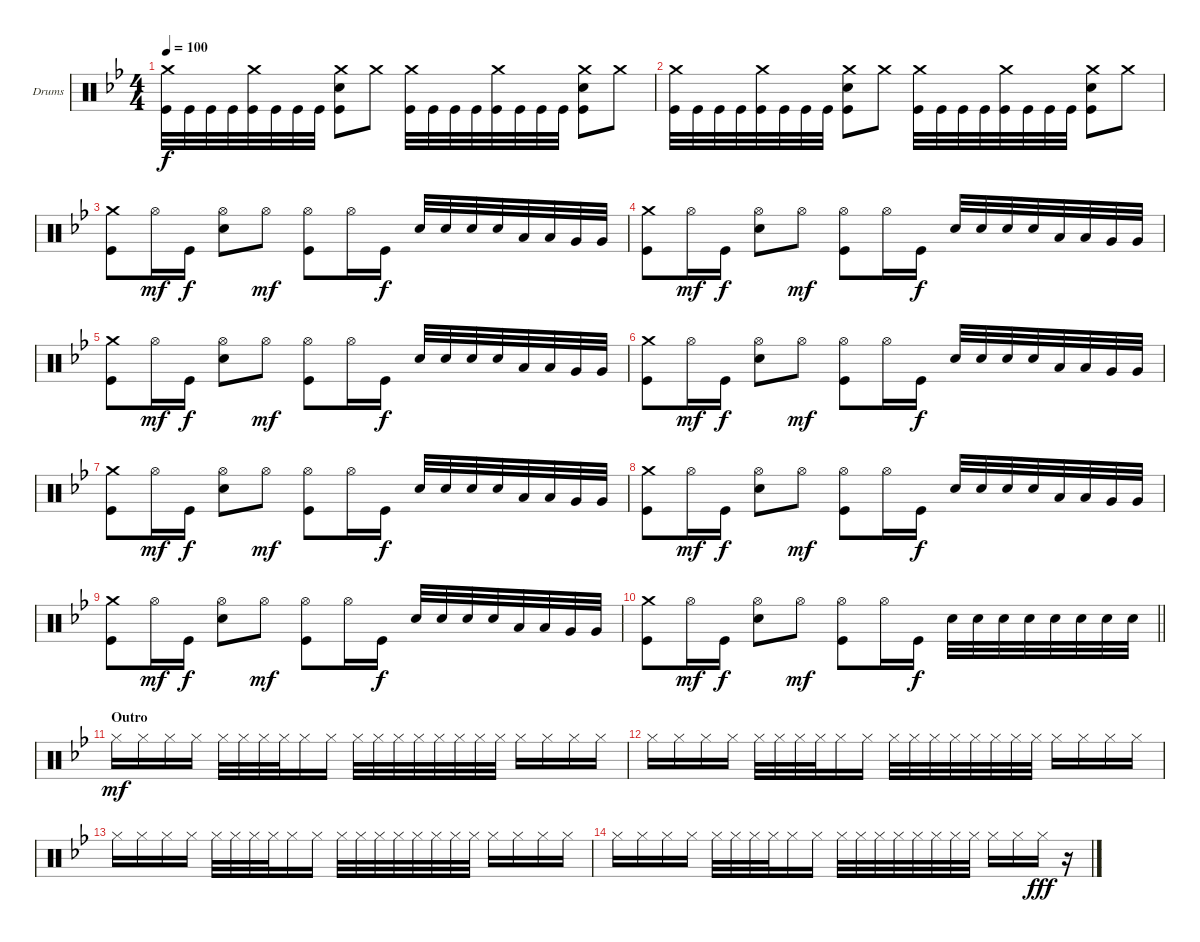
\bracketExtendMode groupsimilarinstruments
\firstSystemTrackNameOrientation horizontal
\otherSystemsTrackNameOrientation horizontal
\track ("Drumkit" "Drums") {instrument percussion}
\staff {score}
\articulation defaults
\ts (4 4)
\tempo 100
\clef neutral
\ks gminor
("Crash medium (hit)" "Kick (hit)").32{dy f} "Kick (hit)".32 "Kick (hit)".32 "Kick (hit)".32 ("Crash medium (hit)" "Kick (hit)").32 "Kick (hit)".32 "Kick (hit)".32 "Kick (hit)".32 ("Crash medium (hit)" "Snare (hit) 2" "Kick (hit)").8 "Crash medium (hit)".8 ("Crash medium (hit)" "Kick (hit)").32 "Kick (hit)".32 "Kick (hit)".32 "Kick (hit)".32 ("Crash medium (hit)" "Kick (hit)").32 "Kick (hit)".32 "Kick (hit)".32 "Kick (hit)".32 ("Crash medium (hit)" "Snare (hit) 2" "Kick (hit)").8 "Crash medium (hit)".8 |
("Crash medium (hit)" "Kick (hit)").32 "Kick (hit)".32 "Kick (hit)".32 "Kick (hit)".32 ("Crash medium (hit)" "Kick (hit)").32 "Kick (hit)".32 "Kick (hit)".32 "Kick (hit)".32 ("Crash medium (hit)" "Snare (hit) 2" "Kick (hit)").8 "Crash medium (hit)".8 ("Crash medium (hit)" "Kick (hit)").32 "Kick (hit)".32 "Kick (hit)".32 "Kick (hit)".32 ("Crash medium (hit)" "Kick (hit)").32 "Kick (hit)".32 "Kick (hit)".32 "Kick (hit)".32 ("Crash medium (hit)" "Snare (hit) 2" "Kick (hit)").8 "Crash medium (hit)".8 |
("Crash medium (hit)" "Kick (hit)").8 "Hi-Hat (open)".16{dy mf} "Kick (hit)".16{dy f} ("Snare (hit) 2" "Hi-Hat (open)").8 "Hi-Hat (open)".8{dy mf} ("Hi-Hat (open)" "Kick (hit)").8 "Hi-Hat (open)".16 "Kick (hit)".16{dy f} "Snare (hit) 2".32 "Snare (hit) 2".32 "Snare (hit) 2".32 "Snare (hit) 2".32 "Low Tom (hit)".32 "Low Tom (hit)".32 "Very Low Tom (hit)".32 "Very Low Tom (hit)".32 |
("Crash medium (hit)" "Kick (hit)").8 "Hi-Hat (open)".16{dy mf} "Kick (hit)".16{dy f} ("Snare (hit) 2" "Hi-Hat (open)").8 "Hi-Hat (open)".8{dy mf} ("Hi-Hat (open)" "Kick (hit)").8 "Hi-Hat (open)".16 "Kick (hit)".16{dy f} "Snare (hit) 2".32 "Snare (hit) 2".32 "Snare (hit) 2".32 "Snare (hit) 2".32 "Low Tom (hit)".32 "Low Tom (hit)".32 "Very Low Tom (hit)".32 "Very Low Tom (hit)".32 |
("Crash medium (hit)" "Kick (hit)").8 "Hi-Hat (open)".16{dy mf} "Kick (hit)".16{dy f} ("Snare (hit) 2" "Hi-Hat (open)").8 "Hi-Hat (open)".8{dy mf} ("Hi-Hat (open)" "Kick (hit)").8 "Hi-Hat (open)".16 "Kick (hit)".16{dy f} "Snare (hit) 2".32 "Snare (hit) 2".32 "Snare (hit) 2".32 "Snare (hit) 2".32 "Low Tom (hit)".32 "Low Tom (hit)".32 "Very Low Tom (hit)".32 "Very Low Tom (hit)".32 |
("Crash medium (hit)" "Kick (hit)").8 "Hi-Hat (open)".16{dy mf} "Kick (hit)".16{dy f} ("Snare (hit) 2" "Hi-Hat (open)").8 "Hi-Hat (open)".8{dy mf} ("Hi-Hat (open)" "Kick (hit)").8 "Hi-Hat (open)".16 "Kick (hit)".16{dy f} "Snare (hit) 2".32 "Snare (hit) 2".32 "Snare (hit) 2".32 "Snare (hit) 2".32 "Low Tom (hit)".32 "Low Tom (hit)".32 "Very Low Tom (hit)".32 "Very Low Tom (hit)".32 |
("Crash medium (hit)" "Kick (hit)").8 "Hi-Hat (open)".16{dy mf} "Kick (hit)".16{dy f} ("Snare (hit) 2" "Hi-Hat (open)").8 "Hi-Hat (open)".8{dy mf} ("Hi-Hat (open)" "Kick (hit)").8 "Hi-Hat (open)".16 "Kick (hit)".16{dy f} "Snare (hit) 2".32 "Snare (hit) 2".32 "Snare (hit) 2".32 "Snare (hit) 2".32 "Low Tom (hit)".32 "Low Tom (hit)".32 "Very Low Tom (hit)".32 "Very Low Tom (hit)".32 |
("Crash medium (hit)" "Kick (hit)").8 "Hi-Hat (open)".16{dy mf} "Kick (hit)".16{dy f} ("Snare (hit) 2" "Hi-Hat (open)").8 "Hi-Hat (open)".8{dy mf} ("Hi-Hat (open)" "Kick (hit)").8 "Hi-Hat (open)".16 "Kick (hit)".16{dy f} "Snare (hit) 2".32 "Snare (hit) 2".32 "Snare (hit) 2".32 "Snare (hit) 2".32 "Low Tom (hit)".32 "Low Tom (hit)".32 "Very Low Tom (hit)".32 "Very Low Tom (hit)".32 |
("Crash medium (hit)" "Kick (hit)").8 "Hi-Hat (open)".16{dy mf} "Kick (hit)".16{dy f} ("Snare (hit) 2" "Hi-Hat (open)").8 "Hi-Hat (open)".8{dy mf} ("Hi-Hat (open)" "Kick (hit)").8 "Hi-Hat (open)".16 "Kick (hit)".16{dy f} "Snare (hit) 2".32 "Snare (hit) 2".32 "Snare (hit) 2".32 "Snare (hit) 2".32 "Low Tom (hit)".32 "Low Tom (hit)".32 "Very Low Tom (hit)".32 "Very Low Tom (hit)".32 |
\barLineRight lightlight
("Crash medium (hit)" "Kick (hit)").8 "Hi-Hat (open)".16{dy mf} "Kick (hit)".16{dy f} ("Snare (hit) 2" "Hi-Hat (open)").8 "Hi-Hat (open)".8{dy mf} ("Hi-Hat (open)" "Kick (hit)").8 "Hi-Hat (open)".16 "Kick (hit)".16{dy f} "Snare (hit) 2".32 "Snare (hit) 2".32 "Snare (hit) 2".32 "Snare (hit) 2".32 "Snare (hit) 2".32 "Snare (hit) 2".32 "Snare (hit) 2".32 "Snare (hit) 2".32 |
\section ("" "Outro")
"Hi-Hat (closed)".16{dy mf} "Hi-Hat (closed)".16 "Hi-Hat (closed)".16 "Hi-Hat (closed)".16 "Hi-Hat (closed)".32 "Hi-Hat (closed)".32 "Hi-Hat (closed)".32 "Hi-Hat (closed)".32 "Hi-Hat (closed)".16 "Hi-Hat (closed)".16 "Hi-Hat (closed)".32 "Hi-Hat (closed)".32 "Hi-Hat (closed)".32 "Hi-Hat (closed)".32 "Hi-Hat (closed)".32 "Hi-Hat (closed)".32 "Hi-Hat (closed)".32 "Hi-Hat (closed)".32 "Hi-Hat (closed)".16 "Hi-Hat (closed)".16 "Hi-Hat (closed)".16 "Hi-Hat (closed)".16 |
"Hi-Hat (closed)".16 "Hi-Hat (closed)".16 "Hi-Hat (closed)".16 "Hi-Hat (closed)".16 "Hi-Hat (closed)".32 "Hi-Hat (closed)".32 "Hi-Hat (closed)".32 "Hi-Hat (closed)".32 "Hi-Hat (closed)".16 "Hi-Hat (closed)".16 "Hi-Hat (closed)".32 "Hi-Hat (closed)".32 "Hi-Hat (closed)".32 "Hi-Hat (closed)".32 "Hi-Hat (closed)".32 "Hi-Hat (closed)".32 "Hi-Hat (closed)".32 "Hi-Hat (closed)".32 "Hi-Hat (closed)".16 "Hi-Hat (closed)".16 "Hi-Hat (closed)".16 "Hi-Hat (closed)".16 |
"Hi-Hat (closed)".16 "Hi-Hat (closed)".16 "Hi-Hat (closed)".16 "Hi-Hat (closed)".16 "Hi-Hat (closed)".32 "Hi-Hat (closed)".32 "Hi-Hat (closed)".32 "Hi-Hat (closed)".32 "Hi-Hat (closed)".16 "Hi-Hat (closed)".16 "Hi-Hat (closed)".32 "Hi-Hat (closed)".32 "Hi-Hat (closed)".32 "Hi-Hat (closed)".32 "Hi-Hat (closed)".32 "Hi-Hat (closed)".32 "Hi-Hat (closed)".32 "Hi-Hat (closed)".32 "Hi-Hat (closed)".16 "Hi-Hat (closed)".16 "Hi-Hat (closed)".16 "Hi-Hat (closed)".16 |
"Hi-Hat (closed)".16 "Hi-Hat (closed)".16 "Hi-Hat (closed)".16 "Hi-Hat (closed)".16 "Hi-Hat (closed)".32 "Hi-Hat (closed)".32 "Hi-Hat (closed)".32 "Hi-Hat (closed)".32 "Hi-Hat (closed)".16 "Hi-Hat (closed)".16 "Hi-Hat (closed)".32 "Hi-Hat (closed)".32 "Hi-Hat (closed)".32 "Hi-Hat (closed)".32 "Hi-Hat (closed)".32 "Hi-Hat (closed)".32 "Hi-Hat (closed)".32 "Hi-Hat (closed)".32 "Hi-Hat (closed)".16 "Hi-Hat (closed)".16 "Hi-Hat (closed)".16{dy fff} r.16
